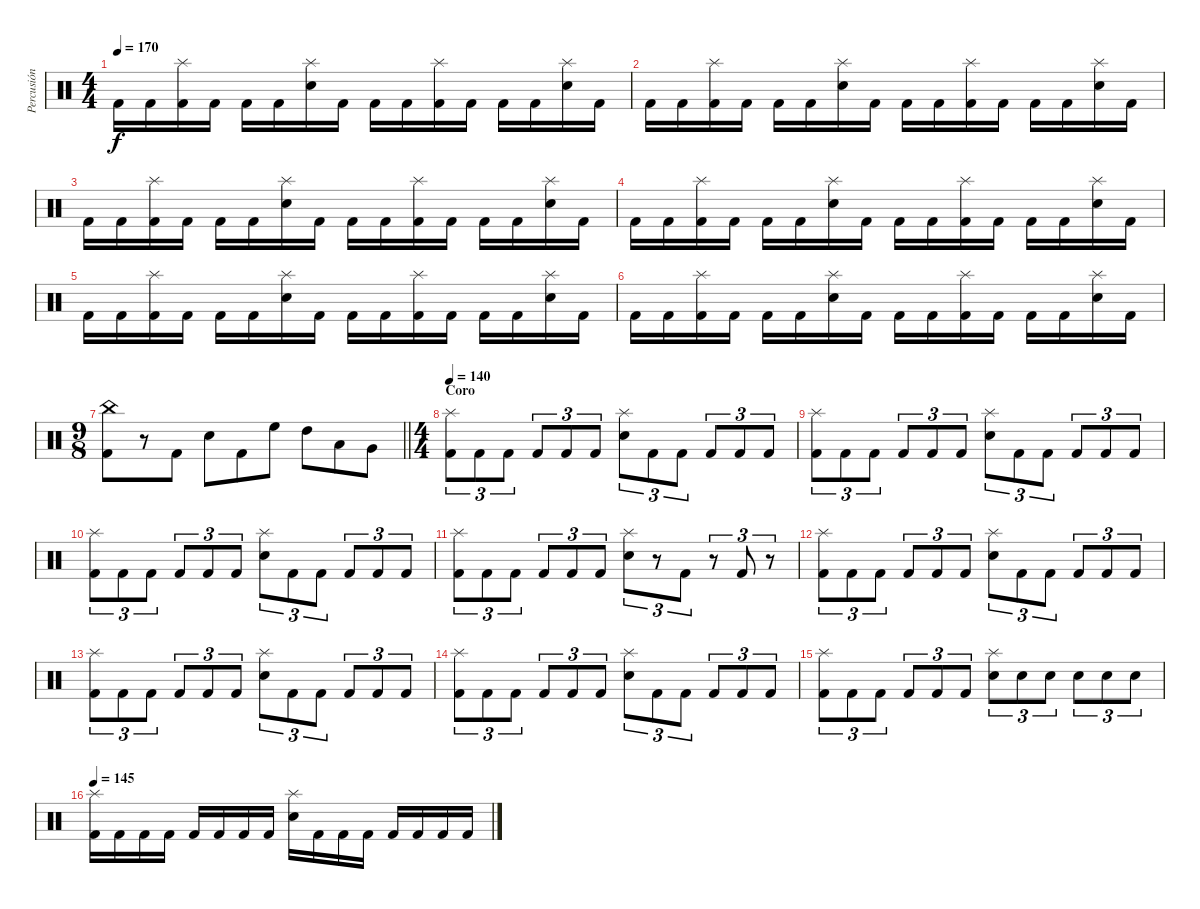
\track ("Percusión" "Percusión") {instrument percussion}
\staff {score}
\articulation defaults
\ts (4 4)
\tempo 170
\clef neutral
\ks c "Kick (hit) 2".16{dy f} "Kick (hit) 2".16
("Splash (hit)" "Kick (hit) 2").16 "Kick (hit) 2".16 "Kick (hit) 2".16 "Kick (hit) 2".16 ("Splash (hit)" "Snare (hit) 2").16 "Kick (hit) 2".16 "Kick (hit) 2".16 "Kick (hit) 2".16 ("Splash (hit)" "Kick (hit) 2").16 "Kick (hit) 2".16 "Kick (hit) 2".16 "Kick (hit) 2".16 ("Splash (hit)" "Snare (hit) 2").16 "Kick (hit) 2".16 |
"Kick (hit) 2".16 "Kick (hit) 2".16 ("Splash (hit)" "Kick (hit) 2").16 "Kick (hit) 2".16 "Kick (hit) 2".16 "Kick (hit) 2".16 ("Splash (hit)" "Snare (hit) 2").16 "Kick (hit) 2".16 "Kick (hit) 2".16 "Kick (hit) 2".16 ("Splash (hit)" "Kick (hit) 2").16 "Kick (hit) 2".16 "Kick (hit) 2".16 "Kick (hit) 2".16 ("Splash (hit)" "Snare (hit) 2").16 "Kick (hit) 2".16 |
"Kick (hit) 2".16 "Kick (hit) 2".16 ("Splash (hit)" "Kick (hit) 2").16 "Kick (hit) 2".16 "Kick (hit) 2".16 "Kick (hit) 2".16 ("Splash (hit)" "Snare (hit) 2").16 "Kick (hit) 2".16 "Kick (hit) 2".16 "Kick (hit) 2".16 ("Splash (hit)" "Kick (hit) 2").16 "Kick (hit) 2".16 "Kick (hit) 2".16 "Kick (hit) 2".16 ("Splash (hit)" "Snare (hit) 2").16 "Kick (hit) 2".16 |
"Kick (hit) 2".16 "Kick (hit) 2".16 ("Splash (hit)" "Kick (hit) 2").16 "Kick (hit) 2".16 "Kick (hit) 2".16 "Kick (hit) 2".16 ("Splash (hit)" "Snare (hit) 2").16 "Kick (hit) 2".16 "Kick (hit) 2".16 "Kick (hit) 2".16 ("Splash (hit)" "Kick (hit) 2").16 "Kick (hit) 2".16 "Kick (hit) 2".16 "Kick (hit) 2".16 ("Splash (hit)" "Snare (hit) 2").16 "Kick (hit) 2".16 |
"Kick (hit) 2".16 "Kick (hit) 2".16 ("Splash (hit)" "Kick (hit) 2").16 "Kick (hit) 2".16 "Kick (hit) 2".16 "Kick (hit) 2".16 ("Splash (hit)" "Snare (hit) 2").16 "Kick (hit) 2".16 "Kick (hit) 2".16 "Kick (hit) 2".16 ("Splash (hit)" "Kick (hit) 2").16 "Kick (hit) 2".16 "Kick (hit) 2".16 "Kick (hit) 2".16 ("Splash (hit)" "Snare (hit) 2").16 "Kick (hit) 2".16 |
"Kick (hit) 2".16 "Kick (hit) 2".16 ("Splash (hit)" "Kick (hit) 2").16 "Kick (hit) 2".16 "Kick (hit) 2".16 "Kick (hit) 2".16 ("Splash (hit)" "Snare (hit) 2").16 "Kick (hit) 2".16 "Kick (hit) 2".16 "Kick (hit) 2".16 ("Splash (hit)" "Kick (hit) 2").16 "Kick (hit) 2".16 "Kick (hit) 2".16 "Kick (hit) 2".16 ("Splash (hit)" "Snare (hit) 2").16 "Kick (hit) 2".16 |
\ts (9 8)
\barLineRight lightlight
("China (hit)" "Kick (hit) 2").8 r.8 "Kick (hit) 2".8 "Electric Snare (hit)".8 "Kick (hit) 2".8 "High Floor Tom (hit)".8 "High Tom (hit)".8 "Low Tom (hit)".8 "Very Low Tom (hit)".8 |
\ts (4 4)
\section ("" "Coro")
\tempo 140
("Splash (hit)" "Kick (hit) 2").8{tu (3 2)} "Kick (hit) 2".8{tu (3 2)} "Kick (hit) 2".8{tu (3 2)} "Kick (hit) 2".8{tu (3 2)} "Kick (hit) 2".8{tu (3 2)} "Kick (hit) 2".8{tu (3 2)} ("Splash (hit)" "Snare (hit) 2").8{tu (3 2)} "Kick (hit) 2".8{tu (3 2)} "Kick (hit) 2".8{tu (3 2)} "Kick (hit) 2".8{tu (3 2)} "Kick (hit) 2".8{tu (3 2)} "Kick (hit) 2".8{tu (3 2)} |
("Splash (hit)" "Kick (hit) 2").8{tu (3 2)} "Kick (hit) 2".8{tu (3 2)} "Kick (hit) 2".8{tu (3 2)} "Kick (hit) 2".8{tu (3 2)} "Kick (hit) 2".8{tu (3 2)} "Kick (hit) 2".8{tu (3 2)} ("Splash (hit)" "Snare (hit) 2").8{tu (3 2)} "Kick (hit) 2".8{tu (3 2)} "Kick (hit) 2".8{tu (3 2)} "Kick (hit) 2".8{tu (3 2)} "Kick (hit) 2".8{tu (3 2)} "Kick (hit) 2".8{tu (3 2)} |
("Splash (hit)" "Kick (hit) 2").8{tu (3 2)} "Kick (hit) 2".8{tu (3 2)} "Kick (hit) 2".8{tu (3 2)} "Kick (hit) 2".8{tu (3 2)} "Kick (hit) 2".8{tu (3 2)} "Kick (hit) 2".8{tu (3 2)} ("Splash (hit)" "Snare (hit) 2").8{tu (3 2)} "Kick (hit) 2".8{tu (3 2)} "Kick (hit) 2".8{tu (3 2)} "Kick (hit) 2".8{tu (3 2)} "Kick (hit) 2".8{tu (3 2)} "Kick (hit) 2".8{tu (3 2)} |
("Splash (hit)" "Kick (hit) 2").8{tu (3 2)} "Kick (hit) 2".8{tu (3 2)} "Kick (hit) 2".8{tu (3 2)} "Kick (hit) 2".8{tu (3 2)} "Kick (hit) 2".8{tu (3 2)} "Kick (hit) 2".8{tu (3 2)} ("Splash (hit)" "Snare (hit) 2").8{tu (3 2)} r.8{tu (3 2)} "Kick (hit) 2".8{tu (3 2)} r.8{tu (3 2)} "Kick (hit) 2".8{tu (3 2)} r.8{tu (3 2)} |
("Splash (hit)" "Kick (hit) 2").8{tu (3 2)} "Kick (hit) 2".8{tu (3 2)} "Kick (hit) 2".8{tu (3 2)} "Kick (hit) 2".8{tu (3 2)} "Kick (hit) 2".8{tu (3 2)} "Kick (hit) 2".8{tu (3 2)} ("Splash (hit)" "Snare (hit) 2").8{tu (3 2)} "Kick (hit) 2".8{tu (3 2)} "Kick (hit) 2".8{tu (3 2)} "Kick (hit) 2".8{tu (3 2)} "Kick (hit) 2".8{tu (3 2)} "Kick (hit) 2".8{tu (3 2)} |
("Splash (hit)" "Kick (hit) 2").8{tu (3 2)} "Kick (hit) 2".8{tu (3 2)} "Kick (hit) 2".8{tu (3 2)} "Kick (hit) 2".8{tu (3 2)} "Kick (hit) 2".8{tu (3 2)} "Kick (hit) 2".8{tu (3 2)} ("Splash (hit)" "Snare (hit) 2").8{tu (3 2)} "Kick (hit) 2".8{tu (3 2)} "Kick (hit) 2".8{tu (3 2)} "Kick (hit) 2".8{tu (3 2)} "Kick (hit) 2".8{tu (3 2)} "Kick (hit) 2".8{tu (3 2)} |
("Splash (hit)" "Kick (hit) 2").8{tu (3 2)} "Kick (hit) 2".8{tu (3 2)} "Kick (hit) 2".8{tu (3 2)} "Kick (hit) 2".8{tu (3 2)} "Kick (hit) 2".8{tu (3 2)} "Kick (hit) 2".8{tu (3 2)} ("Splash (hit)" "Snare (hit) 2").8{tu (3 2)} "Kick (hit) 2".8{tu (3 2)} "Kick (hit) 2".8{tu (3 2)} "Kick (hit) 2".8{tu (3 2)} "Kick (hit) 2".8{tu (3 2)} "Kick (hit) 2".8{tu (3 2)} |
("Splash (hit)" "Kick (hit) 2").8{tu (3 2)} "Kick (hit) 2".8{tu (3 2)} "Kick (hit) 2".8{tu (3 2)} "Kick (hit) 2".8{tu (3 2)} "Kick (hit) 2".8{tu (3 2)} "Kick (hit) 2".8{tu (3 2)} ("Splash (hit)" "Electric Snare (hit)").8{tu (3 2)} "Electric Snare (hit)".8{tu (3 2)} "Electric Snare (hit)".8{tu (3 2)} "Electric Snare (hit)".8{tu (3 2)} "Electric Snare (hit)".8{tu (3 2)} "Electric Snare (hit)".8{tu (3 2)} |
\tempo 145
("Splash (hit)" "Kick (hit) 2").16 "Kick (hit) 2".16 "Kick (hit) 2".16 "Kick (hit) 2".16 "Kick (hit) 2".16 "Kick (hit) 2".16 "Kick (hit) 2".16 "Kick (hit) 2".16 ("Splash (hit)" "Snare (hit) 2").16 "Kick (hit) 2".16 "Kick (hit) 2".16 "Kick (hit) 2".16 "Kick (hit) 2".16 "Kick (hit) 2".16 "Kick (hit) 2".16 "Kick (hit) 2".16
